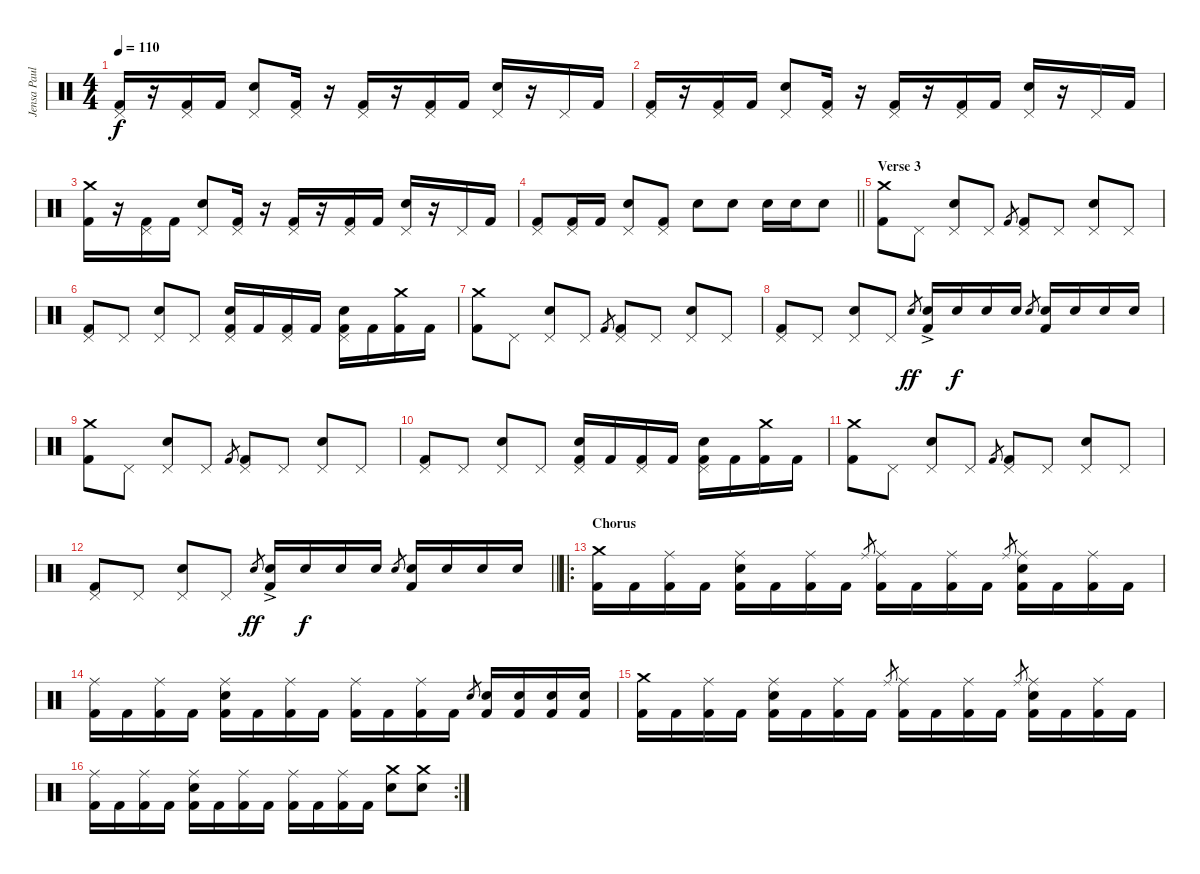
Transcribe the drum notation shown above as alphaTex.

\track ("Jensa Paulsson (Drums)" "Jensa Paul") {instrument percussion}
\staff {score}
\articulation defaults
\ts (4 4)
\tempo 110
\clef neutral
\ks c
("Pedal Hi-Hat (hit)" "Kick (hit) 2").16{dy f} r.16 ("Pedal Hi-Hat (hit)" "Kick (hit) 2").16 "Kick (hit) 2".16 ("Pedal Hi-Hat (hit)" "Electric Snare (hit)").8 ("Pedal Hi-Hat (hit)" "Kick (hit) 2").16 r.16 ("Pedal Hi-Hat (hit)" "Kick (hit) 2").16 r.16 ("Pedal Hi-Hat (hit)" "Kick (hit) 2").16 "Kick (hit) 2".16 ("Pedal Hi-Hat (hit)" "Electric Snare (hit)").16 r.16 "Pedal Hi-Hat (hit)".16 "Kick (hit) 2".16 |
("Pedal Hi-Hat (hit)" "Kick (hit) 2").16 r.16 ("Pedal Hi-Hat (hit)" "Kick (hit) 2").16 "Kick (hit) 2".16 ("Pedal Hi-Hat (hit)" "Electric Snare (hit)").8 ("Pedal Hi-Hat (hit)" "Kick (hit) 2").16 r.16 ("Pedal Hi-Hat (hit)" "Kick (hit) 2").16 r.16 ("Pedal Hi-Hat (hit)" "Kick (hit) 2").16 "Kick (hit) 2".16 ("Pedal Hi-Hat (hit)" "Electric Snare (hit)").16 r.16 "Pedal Hi-Hat (hit)".16 "Kick (hit) 2".16 |
("Crash medium (hit)" "Kick (hit) 2").16 r.16 ("Pedal Hi-Hat (hit)" "Kick (hit) 2").16 "Kick (hit) 2".16 ("Pedal Hi-Hat (hit)" "Electric Snare (hit)").8 ("Pedal Hi-Hat (hit)" "Kick (hit) 2").16 r.16 ("Pedal Hi-Hat (hit)" "Kick (hit) 2").16 r.16 ("Pedal Hi-Hat (hit)" "Kick (hit) 2").16 "Kick (hit) 2".16 ("Pedal Hi-Hat (hit)" "Electric Snare (hit)").16 r.16 "Pedal Hi-Hat (hit)".16 "Kick (hit) 2".16 |
\barLineRight lightlight
("Pedal Hi-Hat (hit)" "Kick (hit) 2").8 ("Pedal Hi-Hat (hit)" "Kick (hit) 2").16 "Kick (hit) 2".16 ("Pedal Hi-Hat (hit)" "Electric Snare (hit)").8 ("Pedal Hi-Hat (hit)" "Kick (hit) 2").8 "Electric Snare (hit)".8 "Electric Snare (hit)".8 "Electric Snare (hit)".16 "Electric Snare (hit)".16 "Electric Snare (hit)".8 |
\section ("" "Verse 3")
("Crash medium (hit)" "Kick (hit) 2").8 "Pedal Hi-Hat (hit)".8 ("Pedal Hi-Hat (hit)" "Electric Snare (hit)").8 "Pedal Hi-Hat (hit)".8 "Kick (hit) 2".8{gr} ("Pedal Hi-Hat (hit)" "Kick (hit) 2").8 "Pedal Hi-Hat (hit)".8 ("Pedal Hi-Hat (hit)" "Electric Snare (hit)").8 "Pedal Hi-Hat (hit)".8 |
("Pedal Hi-Hat (hit)" "Kick (hit) 2").8 "Pedal Hi-Hat (hit)".8 ("Pedal Hi-Hat (hit)" "Electric Snare (hit)").8 "Pedal Hi-Hat (hit)".8 ("Pedal Hi-Hat (hit)" "Electric Snare (hit)" "Kick (hit) 2").16 "Kick (hit) 2".16 ("Pedal Hi-Hat (hit)" "Kick (hit) 2").16 "Kick (hit) 2".16 ("Pedal Hi-Hat (hit)" "Electric Snare (hit)" "Kick (hit) 2").16 "Kick (hit) 2".16 ("Crash medium (hit)" "Kick (hit) 2").16 "Kick (hit) 2".16 |
("Crash medium (hit)" "Kick (hit) 2").8 "Pedal Hi-Hat (hit)".8 ("Pedal Hi-Hat (hit)" "Electric Snare (hit)").8 "Pedal Hi-Hat (hit)".8 "Kick (hit) 2".8{gr} ("Pedal Hi-Hat (hit)" "Kick (hit) 2").8 "Pedal Hi-Hat (hit)".8 ("Pedal Hi-Hat (hit)" "Electric Snare (hit)").8 "Pedal Hi-Hat (hit)".8 |
("Pedal Hi-Hat (hit)" "Kick (hit) 2").8 "Pedal Hi-Hat (hit)".8 ("Pedal Hi-Hat (hit)" "Electric Snare (hit)").8 "Pedal Hi-Hat (hit)".8 "Electric Snare (hit)".8{gr dy ff} ("Electric Snare (hit)"{ac} "Kick (hit) 2").16 "Electric Snare (hit)".16{dy f} "Electric Snare (hit)".16 "Electric Snare (hit)".16 "Electric Snare (hit)".8{gr} ("Electric Snare (hit)" "Kick (hit) 2").16 "Electric Snare (hit)".16 "Electric Snare (hit)".16 "Electric Snare (hit)".16 |
("Crash medium (hit)" "Kick (hit) 2").8 "Pedal Hi-Hat (hit)".8 ("Pedal Hi-Hat (hit)" "Electric Snare (hit)").8 "Pedal Hi-Hat (hit)".8 "Kick (hit) 2".8{gr} ("Pedal Hi-Hat (hit)" "Kick (hit) 2").8 "Pedal Hi-Hat (hit)".8 ("Pedal Hi-Hat (hit)" "Electric Snare (hit)").8 "Pedal Hi-Hat (hit)".8 |
("Pedal Hi-Hat (hit)" "Kick (hit) 2").8 "Pedal Hi-Hat (hit)".8 ("Pedal Hi-Hat (hit)" "Electric Snare (hit)").8 "Pedal Hi-Hat (hit)".8 ("Pedal Hi-Hat (hit)" "Electric Snare (hit)" "Kick (hit) 2").16 "Kick (hit) 2".16 ("Pedal Hi-Hat (hit)" "Kick (hit) 2").16 "Kick (hit) 2".16 ("Pedal Hi-Hat (hit)" "Electric Snare (hit)" "Kick (hit) 2").16 "Kick (hit) 2".16 ("Crash medium (hit)" "Kick (hit) 2").16 "Kick (hit) 2".16 |
("Crash medium (hit)" "Kick (hit) 2").8 "Pedal Hi-Hat (hit)".8 ("Pedal Hi-Hat (hit)" "Electric Snare (hit)").8 "Pedal Hi-Hat (hit)".8 "Kick (hit) 2".8{gr} ("Pedal Hi-Hat (hit)" "Kick (hit) 2").8 "Pedal Hi-Hat (hit)".8 ("Pedal Hi-Hat (hit)" "Electric Snare (hit)").8 "Pedal Hi-Hat (hit)".8 |
\barLineRight lightlight
("Pedal Hi-Hat (hit)" "Kick (hit) 2").8 "Pedal Hi-Hat (hit)".8 ("Pedal Hi-Hat (hit)" "Electric Snare (hit)").8 "Pedal Hi-Hat (hit)".8 "Electric Snare (hit)".8{gr dy ff} ("Electric Snare (hit)"{ac} "Kick (hit) 2").16 "Electric Snare (hit)".16{dy f} "Electric Snare (hit)".16 "Electric Snare (hit)".16 "Electric Snare (hit)".8{gr} ("Electric Snare (hit)" "Kick (hit) 2").16 "Electric Snare (hit)".16 "Electric Snare (hit)".16 "Electric Snare (hit)".16 |
\ro
\section ("" "Chorus")
("Crash medium (hit)" "Kick (hit) 2").16 "Kick (hit) 2".16 ("Ride (middle)" "Kick (hit) 2").16 "Kick (hit) 2".16 ("Ride (middle)" "Electric Snare (hit)" "Kick (hit) 2").16 "Kick (hit) 2".16 ("Ride (middle)" "Kick (hit) 2").16 "Kick (hit) 2".16 "Ride (middle)".8{gr} ("Ride (middle)" "Kick (hit) 2").16 "Kick (hit) 2".16 ("Ride (middle)" "Kick (hit) 2").16 "Kick (hit) 2".16 "Ride (middle)".8{gr} ("Ride (middle)" "Electric Snare (hit)" "Kick (hit) 2").16 "Kick (hit) 2".16 ("Ride (middle)" "Kick (hit) 2").16 "Kick (hit) 2".16 |
("Ride (middle)" "Kick (hit) 2").16 "Kick (hit) 2".16 ("Ride (middle)" "Kick (hit) 2").16 "Kick (hit) 2".16 ("Ride (middle)" "Electric Snare (hit)" "Kick (hit) 2").16 "Kick (hit) 2".16 ("Ride (middle)" "Kick (hit) 2").16 "Kick (hit) 2".16 ("Ride (middle)" "Kick (hit) 2").16 "Kick (hit) 2".16 ("Ride (middle)" "Kick (hit) 2").16 "Kick (hit) 2".16 "Electric Snare (hit)".8{gr} ("Electric Snare (hit)" "Kick (hit) 2").16 ("Electric Snare (hit)" "Kick (hit) 2").16 ("Electric Snare (hit)" "Kick (hit) 2").16 ("Electric Snare (hit)" "Kick (hit) 2").16 |
("Crash medium (hit)" "Kick (hit) 2").16 "Kick (hit) 2".16 ("Ride (middle)" "Kick (hit) 2").16 "Kick (hit) 2".16 ("Ride (middle)" "Electric Snare (hit)" "Kick (hit) 2").16 "Kick (hit) 2".16 ("Ride (middle)" "Kick (hit) 2").16 "Kick (hit) 2".16 "Ride (middle)".8{gr} ("Ride (middle)" "Kick (hit) 2").16 "Kick (hit) 2".16 ("Ride (middle)" "Kick (hit) 2").16 "Kick (hit) 2".16 "Ride (middle)".8{gr} ("Ride (middle)" "Electric Snare (hit)" "Kick (hit) 2").16 "Kick (hit) 2".16 ("Ride (middle)" "Kick (hit) 2").16 "Kick (hit) 2".16 |
\rc 2
("Ride (middle)" "Kick (hit) 2").16 "Kick (hit) 2".16 ("Ride (middle)" "Kick (hit) 2").16 "Kick (hit) 2".16 ("Ride (middle)" "Electric Snare (hit)" "Kick (hit) 2").16 "Kick (hit) 2".16 ("Ride (middle)" "Kick (hit) 2").16 "Kick (hit) 2".16 ("Ride (middle)" "Kick (hit) 2").16 "Kick (hit) 2".16 ("Ride (middle)" "Kick (hit) 2").16 "Kick (hit) 2".16 ("Crash medium (hit)" "Electric Snare (hit)").8 ("Crash medium (hit)" "Electric Snare (hit)").8
